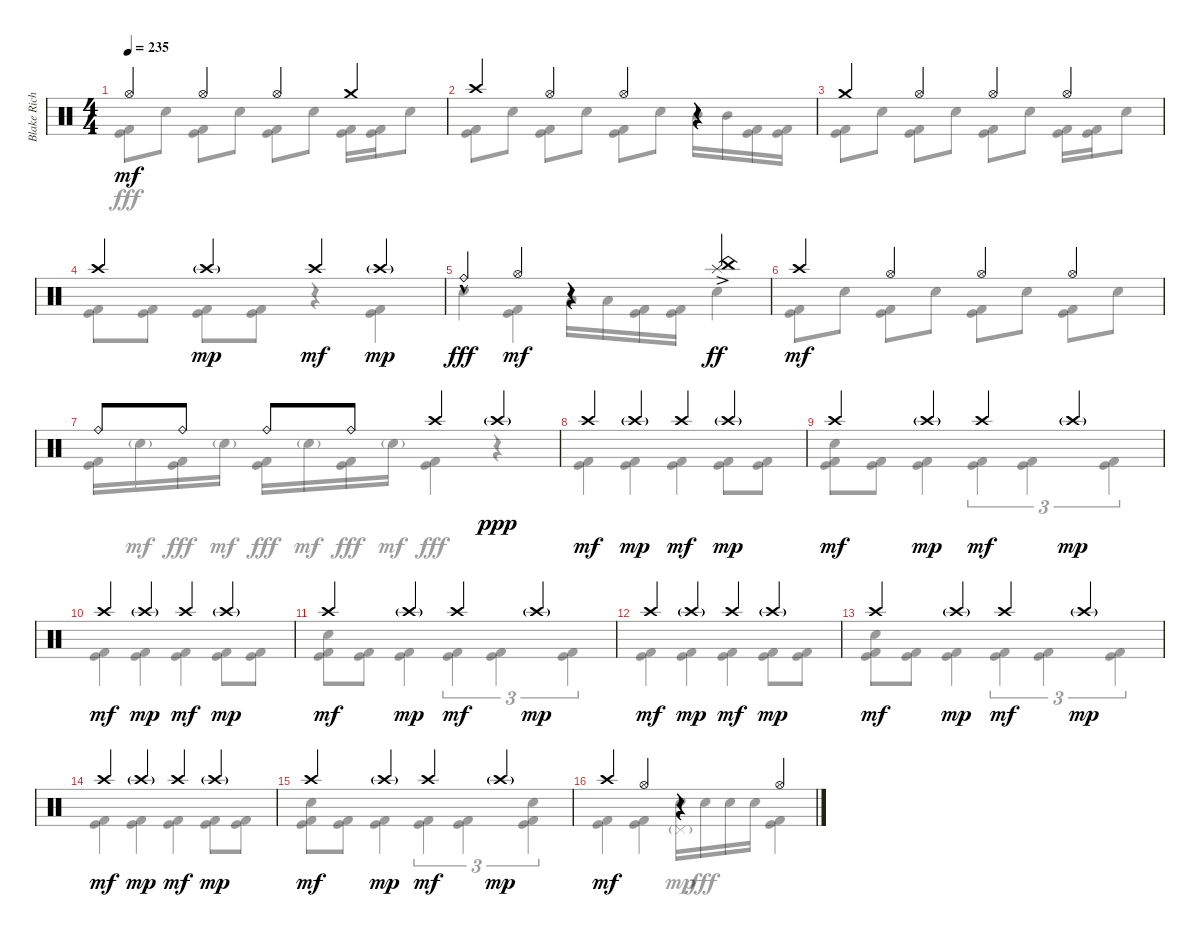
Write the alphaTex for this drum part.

\track ("Blake Richardson Drums" "Blake Rich") {instrument percussion}
\staff {score}
\articulation defaults
\voice
\ts (4 4)
\tempo 235
\clef neutral
\ks c "Hi-Hat (open)".4{dy mf} "Hi-Hat (open)".4 "Hi-Hat (open)".4 "Crash medium (hit)".4
|
"Crash high (hit)".4 "Hi-Hat (open)".4 "Hi-Hat (open)".4 r.4 |
"Crash medium (hit)".4 "Hi-Hat (open)".4 "Hi-Hat (open)".4 "Hi-Hat (open)".4 |
"Crash high (hit)".4 "Crash high (hit)"{g}.4{dy mp} "Crash high (hit)".4{dy mf} "Crash high (hit)"{g}.4{dy mp} |
"Ride (bell)"{hac}.4{dy fff} "Hi-Hat (open)".4{dy mf} r.4 ("China (hit)" "Splash (hit)"{ac}).4{dy ff} |
"Crash high (hit)".4{dy mf} "Hi-Hat (open)".4 "Hi-Hat (open)".4 "Hi-Hat (open)".4 |
"Ride (bell)".8 "Ride (bell)".8 "Ride (bell)".8 "Ride (bell)".8 "Crash high (hit)".4 "Crash high (hit)"{g}.4{dy ppp} |
"Crash high (hit)".4{dy mf} "Crash high (hit)"{g}.4{dy mp} "Crash high (hit)".4{dy mf} "Crash high (hit)"{g}.4{dy mp} |
"Crash high (hit)".4{dy mf} "Crash high (hit)"{g}.4{dy mp} "Crash high (hit)".4{dy mf} "Crash high (hit)"{g}.4{dy mp} |
"Crash high (hit)".4{dy mf} "Crash high (hit)"{g}.4{dy mp} "Crash high (hit)".4{dy mf} "Crash high (hit)"{g}.4{dy mp} |
"Crash high (hit)".4{dy mf} "Crash high (hit)"{g}.4{dy mp} "Crash high (hit)".4{dy mf} "Crash high (hit)"{g}.4{dy mp} |
"Crash high (hit)".4{dy mf} "Crash high (hit)"{g}.4{dy mp} "Crash high (hit)".4{dy mf} "Crash high (hit)"{g}.4{dy mp} |
"Crash high (hit)".4{dy mf} "Crash high (hit)"{g}.4{dy mp} "Crash high (hit)".4{dy mf} "Crash high (hit)"{g}.4{dy mp} |
"Crash high (hit)".4{dy mf} "Crash high (hit)"{g}.4{dy mp} "Crash high (hit)".4{dy mf} "Crash high (hit)"{g}.4{dy mp} |
"Crash high (hit)".4{dy mf} "Crash high (hit)"{g}.4{dy mp} "Crash high (hit)".4{dy mf} "Crash high (hit)"{g}.4{dy mp} |
"Crash high (hit)".4{dy mf} "Hi-Hat (open)".4 r.4 "Hi-Hat (open)".4
\voice
\clef neutral
\ottava regular
\simile none
\ks c
("Kick (hit)" "Kick (hit) 2").8{dy fff} "Electric Snare (hit)".8 ("Kick (hit)" "Kick (hit) 2").8 "Electric Snare (hit)".8 ("Kick (hit)" "Kick (hit) 2").8 "Electric Snare (hit)".8 ("Kick (hit)" "Kick (hit) 2").16 ("Kick (hit)" "Kick (hit) 2").16 "Electric Snare (hit)".8 |
("Kick (hit)" "Kick (hit) 2").8 "Electric Snare (hit)".8 ("Kick (hit)" "Kick (hit) 2").8 "Electric Snare (hit)".8 ("Kick (hit)" "Kick (hit) 2").8 "Electric Snare (hit)".8 "Mid Tom (hit)".16 "Mid Tom (hit)".16 ("Kick (hit)" "Kick (hit) 2").16 ("Kick (hit)" "Kick (hit) 2").16 |
("Kick (hit)" "Kick (hit) 2").8 "Electric Snare (hit)".8 ("Kick (hit)" "Kick (hit) 2").8 "Electric Snare (hit)".8 ("Kick (hit)" "Kick (hit) 2").8 "Electric Snare (hit)".8 ("Kick (hit)" "Kick (hit) 2").16 ("Kick (hit)" "Kick (hit) 2").16 "Electric Snare (hit)".8 |
("Kick (hit)" "Kick (hit) 2").8 ("Kick (hit)" "Kick (hit) 2").8 ("Kick (hit)" "Kick (hit) 2").8 ("Kick (hit)" "Kick (hit) 2").8 r.4 ("Kick (hit)" "Kick (hit) 2").4 |
"Electric Snare (hit)".4 ("Kick (hit)" "Kick (hit) 2").4 "Low Tom (hit)".16 "Low Tom (hit)".16 ("Kick (hit)" "Kick (hit) 2").16 ("Kick (hit)" "Kick (hit) 2").16 "Electric Snare (hit)".4 |
("Kick (hit)" "Kick (hit) 2").8 "Electric Snare (hit)".8 ("Kick (hit)" "Kick (hit) 2").8 "Electric Snare (hit)".8 ("Kick (hit)" "Kick (hit) 2").8 "Electric Snare (hit)".8 ("Kick (hit)" "Kick (hit) 2").8 "Electric Snare (hit)".8 |
("Kick (hit)" "Kick (hit) 2").16 "Electric Snare (hit)"{g}.16{dy mf} ("Kick (hit)" "Kick (hit) 2").16{dy fff} "Electric Snare (hit)"{g}.16{dy mf} ("Kick (hit)" "Kick (hit) 2").16{dy fff} "Electric Snare (hit)"{g}.16{dy mf} ("Kick (hit)" "Kick (hit) 2").16{dy fff} "Electric Snare (hit)"{g}.16{dy mf} ("Kick (hit)" "Kick (hit) 2").4{dy fff} r.4 |
("Kick (hit)" "Kick (hit) 2").4 ("Kick (hit)" "Kick (hit) 2").4 ("Kick (hit)" "Kick (hit) 2").4 ("Kick (hit)" "Kick (hit) 2").8 ("Kick (hit)" "Kick (hit) 2").8 |
("Electric Snare (hit)" "Kick (hit)" "Kick (hit) 2").8 ("Kick (hit)" "Kick (hit) 2").8 ("Kick (hit)" "Kick (hit) 2").4 ("Kick (hit)" "Kick (hit) 2").4{tu (3 2)} ("Kick (hit)" "Kick (hit) 2").4{tu (3 2)} ("Kick (hit)" "Kick (hit) 2").4{tu (3 2)} |
("Kick (hit)" "Kick (hit) 2").4 ("Kick (hit)" "Kick (hit) 2").4 ("Kick (hit)" "Kick (hit) 2").4 ("Kick (hit)" "Kick (hit) 2").8 ("Kick (hit)" "Kick (hit) 2").8 |
("Electric Snare (hit)" "Kick (hit)" "Kick (hit) 2").8 ("Kick (hit)" "Kick (hit) 2").8 ("Kick (hit)" "Kick (hit) 2").4 ("Kick (hit)" "Kick (hit) 2").4{tu (3 2)} ("Kick (hit)" "Kick (hit) 2").4{tu (3 2)} ("Kick (hit)" "Kick (hit) 2").4{tu (3 2)} |
("Kick (hit)" "Kick (hit) 2").4 ("Kick (hit)" "Kick (hit) 2").4 ("Kick (hit)" "Kick (hit) 2").4 ("Kick (hit)" "Kick (hit) 2").8 ("Kick (hit)" "Kick (hit) 2").8 |
("Electric Snare (hit)" "Kick (hit)" "Kick (hit) 2").8 ("Kick (hit)" "Kick (hit) 2").8 ("Kick (hit)" "Kick (hit) 2").4 ("Kick (hit)" "Kick (hit) 2").4{tu (3 2)} ("Kick (hit)" "Kick (hit) 2").4{tu (3 2)} ("Kick (hit)" "Kick (hit) 2").4{tu (3 2)} |
("Kick (hit)" "Kick (hit) 2").4 ("Kick (hit)" "Kick (hit) 2").4 ("Kick (hit)" "Kick (hit) 2").4 ("Kick (hit)" "Kick (hit) 2").8 ("Kick (hit)" "Kick (hit) 2").8 |
("Electric Snare (hit)" "Kick (hit)" "Kick (hit) 2").8 ("Kick (hit)" "Kick (hit) 2").8 ("Kick (hit)" "Kick (hit) 2").4 ("Kick (hit)" "Kick (hit) 2").4{tu (3 2)} ("Kick (hit)" "Kick (hit) 2").4{tu (3 2)} ("Electric Snare (hit)" "Kick (hit)" "Kick (hit) 2").4{tu (3 2)} |
("Kick (hit)" "Kick (hit) 2").4 ("Kick (hit)" "Kick (hit) 2").4 ("Electric Snare (hit)" "Pedal Hi-Hat (hit)"{g}).16{dy mp} "Electric Snare (hit)".16{dy fff} "Electric Snare (hit)".16 "Electric Snare (hit)".16 ("Kick (hit)" "Kick (hit) 2").4
